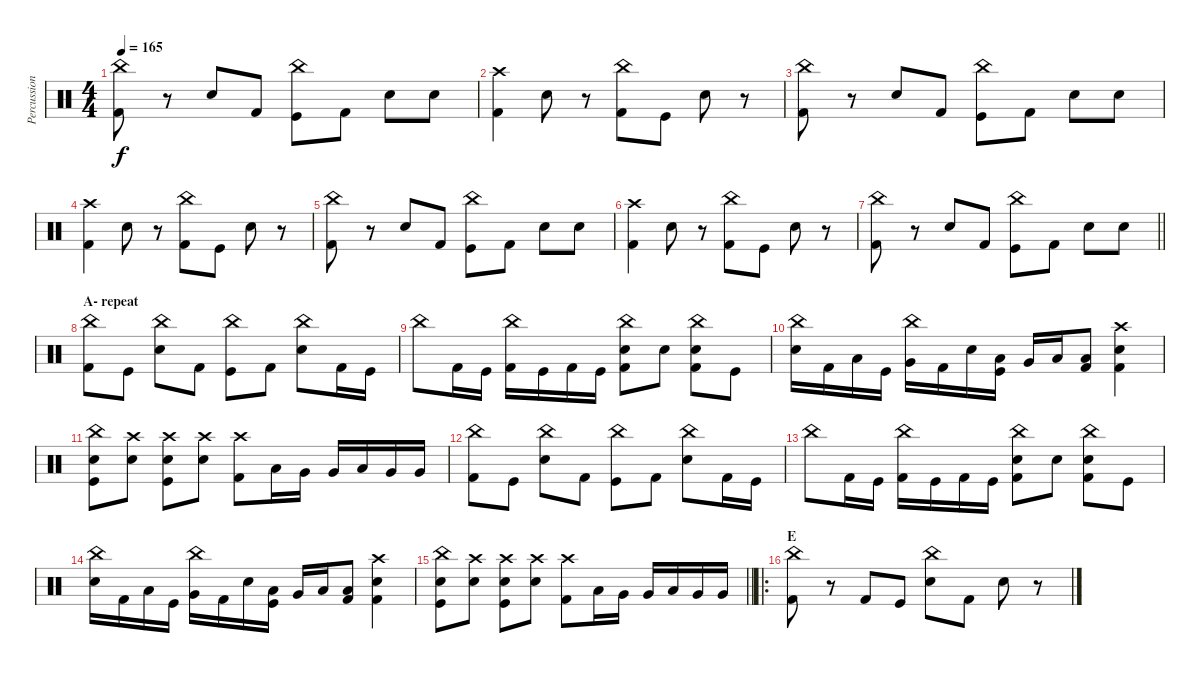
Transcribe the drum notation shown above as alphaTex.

\track ("Percussion" "Percussion") {instrument percussion}
\staff {score}
\articulation defaults
\ts (4 4)
\tempo 165
\clef neutral
\ks c
("China (hit)" "Kick (hit) 2").8{dy f} r.8 "Electric Snare (hit)".8 "Kick (hit) 2".8 ("China (hit)" "Kick (hit)").8 "Kick (hit) 2".8 "Electric Snare (hit)".8 "Electric Snare (hit)".8 |
("Crash high (hit)" "Kick (hit) 2").4 "Electric Snare (hit)".8 r.8 ("China (hit)" "Kick (hit) 2").8 "Kick (hit)".8 "Electric Snare (hit)".8 r.8 |
("China (hit)" "Kick (hit) 2").8 r.8 "Electric Snare (hit)".8 "Kick (hit) 2".8 ("China (hit)" "Kick (hit)").8 "Kick (hit) 2".8 "Electric Snare (hit)".8 "Electric Snare (hit)".8 |
("Crash high (hit)" "Kick (hit) 2").4 "Electric Snare (hit)".8 r.8 ("China (hit)" "Kick (hit) 2").8 "Kick (hit)".8 "Electric Snare (hit)".8 r.8 |
("China (hit)" "Kick (hit) 2").8 r.8 "Electric Snare (hit)".8 "Kick (hit) 2".8 ("China (hit)" "Kick (hit)").8 "Kick (hit) 2".8 "Electric Snare (hit)".8 "Electric Snare (hit)".8 |
("Crash high (hit)" "Kick (hit) 2").4 "Electric Snare (hit)".8 r.8 ("China (hit)" "Kick (hit) 2").8 "Kick (hit)".8 "Electric Snare (hit)".8 r.8 |
\barLineRight lightlight
("China (hit)" "Kick (hit) 2").8 r.8 "Electric Snare (hit)".8 "Kick (hit) 2".8 ("China (hit)" "Kick (hit)").8 "Kick (hit) 2".8 "Electric Snare (hit)".8 "Electric Snare (hit)".8 |
\section ("" "A- repeat")
("China (hit)" "Kick (hit) 2").8 "Kick (hit)".8 ("China (hit)" "Electric Snare (hit)").8 "Kick (hit) 2".8 ("China (hit)" "Kick (hit)").8 "Kick (hit) 2".8 ("China (hit)" "Electric Snare (hit)").8 "Kick (hit) 2".16 "Kick (hit)".16 |
"China (hit)".8 "Kick (hit) 2".16 "Kick (hit)".16 ("China (hit)" "Kick (hit) 2").16 "Kick (hit)".16 "Kick (hit) 2".16 "Kick (hit)".16 ("China (hit)" "Electric Snare (hit)" "Kick (hit) 2").8 "Electric Snare (hit)".8 ("China (hit)" "Electric Snare (hit)" "Kick (hit) 2").8 "Kick (hit)".8 |
("China (hit)" "Electric Snare (hit)").16 "Kick (hit) 2".16 "Low Tom (hit)".16 "Kick (hit)".16 ("China (hit)" "Very Low Tom (hit)").16 "Kick (hit) 2".16 "Electric Snare (hit)".16 ("Low Tom (hit)" "Kick (hit)").16 "Very Low Tom (hit)".16 "Low Floor Tom (hit)".16 ("Low Tom (hit)" "Kick (hit) 2").8 ("Crash high (hit)" "Electric Snare (hit)" "Kick (hit) 2").4 |
("China (hit)" "Electric Snare (hit)" "Kick (hit)").8 ("Crash high (hit)" "Electric Snare (hit)").8 ("Crash high (hit)" "Electric Snare (hit)" "Kick (hit)").8 ("Crash high (hit)" "Electric Snare (hit)").8 ("Crash high (hit)" "Kick (hit) 2").8 "Low Tom (hit)".16 "Very Low Tom (hit)".16 "Very Low Tom (hit)".16 "Low Tom (hit)".16 "Very Low Tom (hit)".16 "Very Low Tom (hit)".16 |
("China (hit)" "Kick (hit) 2").8 "Kick (hit)".8 ("China (hit)" "Electric Snare (hit)").8 "Kick (hit) 2".8 ("China (hit)" "Kick (hit)").8 "Kick (hit) 2".8 ("China (hit)" "Electric Snare (hit)").8 "Kick (hit) 2".16 "Kick (hit)".16 |
"China (hit)".8 "Kick (hit) 2".16 "Kick (hit)".16 ("China (hit)" "Kick (hit) 2").16 "Kick (hit)".16 "Kick (hit) 2".16 "Kick (hit)".16 ("China (hit)" "Electric Snare (hit)" "Kick (hit) 2").8 "Electric Snare (hit)".8 ("China (hit)" "Electric Snare (hit)" "Kick (hit) 2").8 "Kick (hit)".8 |
("China (hit)" "Electric Snare (hit)").16 "Kick (hit) 2".16 "Low Tom (hit)".16 "Kick (hit)".16 ("China (hit)" "Very Low Tom (hit)").16 "Kick (hit) 2".16 "Electric Snare (hit)".16 ("Low Tom (hit)" "Kick (hit)").16 "Very Low Tom (hit)".16 "Low Floor Tom (hit)".16 ("Low Tom (hit)" "Kick (hit) 2").8 ("Crash high (hit)" "Electric Snare (hit)" "Kick (hit) 2").4 |
\barLineRight lightlight
("China (hit)" "Electric Snare (hit)" "Kick (hit)").8 ("Crash high (hit)" "Electric Snare (hit)").8 ("Crash high (hit)" "Electric Snare (hit)" "Kick (hit)").8 ("Crash high (hit)" "Electric Snare (hit)").8 ("Crash high (hit)" "Kick (hit) 2").8 "Low Tom (hit)".16 "Very Low Tom (hit)".16 "Very Low Tom (hit)".16 "Low Tom (hit)".16 "Very Low Tom (hit)".16 "Very Low Tom (hit)".16 |
\ro
\section ("" "E")
("China (hit)" "Kick (hit) 2").8 r.8 "Kick (hit) 2".8 "Kick (hit)".8 ("China (hit)" "Electric Snare (hit)").8 "Kick (hit) 2".8 "Electric Snare (hit)".8 r.8
